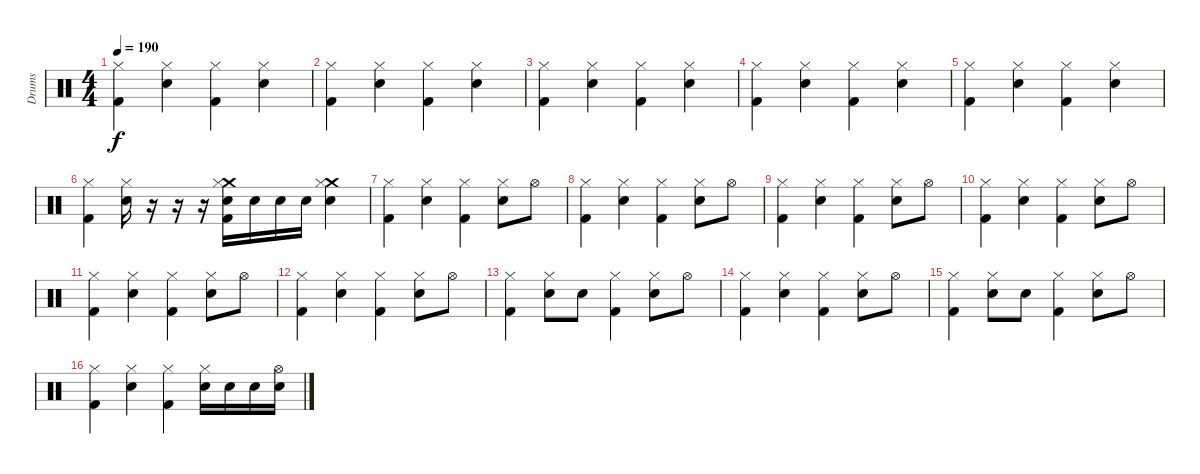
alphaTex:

\track ("Drums" "Drums") {instrument percussion}
\staff {score}
\articulation defaults
\ts (4 4)
\tempo 190
\clef neutral
\ks c
("Hi-Hat (closed)" "Kick (hit) 2").4{dy f} ("Hi-Hat (closed)" "Electric Snare (hit)").4 ("Hi-Hat (closed)" "Kick (hit) 2").4 ("Hi-Hat (closed)" "Electric Snare (hit)").4 |
("Hi-Hat (closed)" "Kick (hit) 2").4 ("Hi-Hat (closed)" "Electric Snare (hit)").4 ("Hi-Hat (closed)" "Kick (hit) 2").4 ("Hi-Hat (closed)" "Electric Snare (hit)").4 |
("Hi-Hat (closed)" "Kick (hit) 2").4 ("Hi-Hat (closed)" "Electric Snare (hit)").4 ("Hi-Hat (closed)" "Kick (hit) 2").4 ("Hi-Hat (closed)" "Electric Snare (hit)").4 |
("Hi-Hat (closed)" "Kick (hit) 2").4 ("Hi-Hat (closed)" "Electric Snare (hit)").4 ("Hi-Hat (closed)" "Kick (hit) 2").4 ("Hi-Hat (closed)" "Electric Snare (hit)").4 |
("Hi-Hat (closed)" "Kick (hit) 2").4 ("Hi-Hat (closed)" "Electric Snare (hit)").4 ("Hi-Hat (closed)" "Kick (hit) 2").4 ("Hi-Hat (closed)" "Electric Snare (hit)").4 |
("Hi-Hat (closed)" "Kick (hit) 2").4 ("Hi-Hat (closed)" "Electric Snare (hit)").16 r.16 r.16 r.16 ("Crash medium (hit)" "Hi-Hat (closed)" "Electric Snare (hit)" "Kick (hit) 2").16 "Electric Snare (hit)".16 "Electric Snare (hit)".16 "Electric Snare (hit)".16 ("Crash medium (hit)" "Hi-Hat (closed)" "Electric Snare (hit)").4 |
("Hi-Hat (closed)" "Kick (hit) 2").4 ("Hi-Hat (closed)" "Electric Snare (hit)").4 ("Hi-Hat (closed)" "Kick (hit) 2").4 ("Hi-Hat (closed)" "Electric Snare (hit)").8 "Hi-Hat (open)".8 |
("Hi-Hat (closed)" "Kick (hit) 2").4 ("Hi-Hat (closed)" "Electric Snare (hit)").4 ("Hi-Hat (closed)" "Kick (hit) 2").4 ("Hi-Hat (closed)" "Electric Snare (hit)").8 "Hi-Hat (open)".8 |
("Hi-Hat (closed)" "Kick (hit) 2").4 ("Hi-Hat (closed)" "Electric Snare (hit)").4 ("Hi-Hat (closed)" "Kick (hit) 2").4 ("Hi-Hat (closed)" "Electric Snare (hit)").8 "Hi-Hat (open)".8 |
("Hi-Hat (closed)" "Kick (hit) 2").4 ("Hi-Hat (closed)" "Electric Snare (hit)").4 ("Hi-Hat (closed)" "Kick (hit) 2").4 ("Hi-Hat (closed)" "Electric Snare (hit)").8 "Hi-Hat (open)".8 |
("Hi-Hat (closed)" "Kick (hit) 2").4 ("Hi-Hat (closed)" "Electric Snare (hit)").4 ("Hi-Hat (closed)" "Kick (hit) 2").4 ("Hi-Hat (closed)" "Electric Snare (hit)").8 "Hi-Hat (open)".8 |
("Hi-Hat (closed)" "Kick (hit) 2").4 ("Hi-Hat (closed)" "Electric Snare (hit)").4 ("Hi-Hat (closed)" "Kick (hit) 2").4 ("Hi-Hat (closed)" "Electric Snare (hit)").8 "Hi-Hat (open)".8 |
("Hi-Hat (closed)" "Kick (hit) 2").4 ("Hi-Hat (closed)" "Electric Snare (hit)").8 "Electric Snare (hit)".8 ("Hi-Hat (closed)" "Kick (hit) 2").4 ("Hi-Hat (closed)" "Electric Snare (hit)").8 "Hi-Hat (open)".8 |
("Hi-Hat (closed)" "Kick (hit) 2").4 ("Hi-Hat (closed)" "Electric Snare (hit)").4 ("Hi-Hat (closed)" "Kick (hit) 2").4 ("Hi-Hat (closed)" "Electric Snare (hit)").8 "Hi-Hat (open)".8 |
("Hi-Hat (closed)" "Kick (hit) 2").4 ("Hi-Hat (closed)" "Electric Snare (hit)").8 "Electric Snare (hit)".8 ("Hi-Hat (closed)" "Kick (hit) 2").4 ("Hi-Hat (closed)" "Electric Snare (hit)").8 "Hi-Hat (open)".8 |
("Hi-Hat (closed)" "Kick (hit) 2").4 ("Hi-Hat (closed)" "Electric Snare (hit)").4 ("Hi-Hat (closed)" "Kick (hit) 2").4 ("Hi-Hat (closed)" "Electric Snare (hit)").16 "Electric Snare (hit)".16 "Electric Snare (hit)".16 ("Hi-Hat (open)" "Electric Snare (hit)").16
